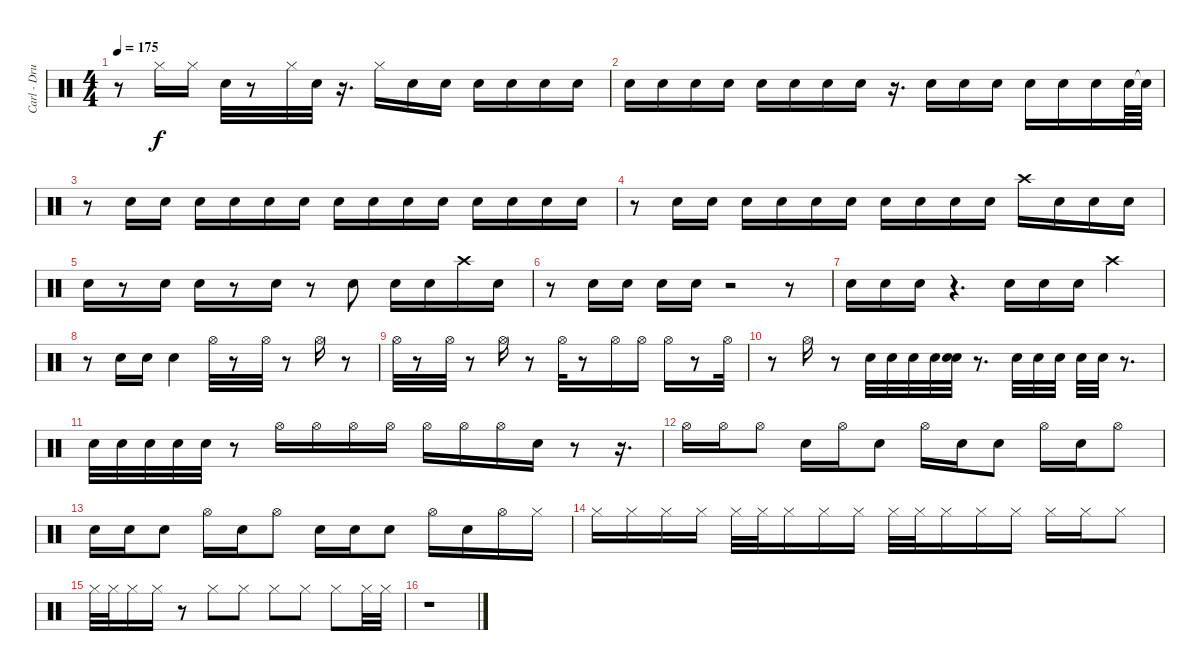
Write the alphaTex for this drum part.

\track ("Carl - Drums II" "Carl - Dru") {instrument percussion}
\staff {score}
\articulation defaults
\ts (4 4)
\tempo 175
\clef neutral
\ks c
r.8{dy f} "Hi-Hat (closed)".16 "Hi-Hat (closed)".16 "Snare (hit) 2".32 r.8 "Hi-Hat (closed)".32 "Snare (hit) 2".32 r.16{d} "Hi-Hat (closed)".16 "Snare (hit) 2".16 "Snare (hit) 2".16 "Snare (hit) 2".16 "Snare (hit) 2".16 "Snare (hit) 2".16 "Snare (hit) 2".16 |
"Snare (hit) 2".16 "Snare (hit) 2".16 "Snare (hit) 2".16 "Snare (hit) 2".16 "Snare (hit) 2".16 "Snare (hit) 2".16 "Snare (hit) 2".16 "Snare (hit) 2".16 r.16{d} "Snare (hit) 2".16 "Snare (hit) 2".16 "Snare (hit) 2".16 "Snare (hit) 2".16 "Snare (hit) 2".16 "Snare (hit) 2".16 "Snare (hit) 2".64 "Snare (hit)"{t}.64 |
r.8 "Snare (hit) 2".16 "Snare (hit) 2".16 "Snare (hit) 2".16 "Snare (hit) 2".16 "Snare (hit) 2".16 "Snare (hit) 2".16 "Snare (hit) 2".16 "Snare (hit) 2".16 "Snare (hit) 2".16 "Snare (hit) 2".16 "Snare (hit) 2".16 "Snare (hit) 2".16 "Snare (hit) 2".16 "Snare (hit) 2".16 |
r.8 "Snare (hit) 2".16 "Snare (hit) 2".16 "Snare (hit) 2".16 "Snare (hit) 2".16 "Snare (hit) 2".16 "Snare (hit) 2".16 "Snare (hit) 2".16 "Snare (hit) 2".16 "Snare (hit) 2".16 "Snare (hit) 2".16 "Crash high (hit)".16 "Snare (hit) 2".16 "Snare (hit) 2".16 "Snare (hit) 2".16 |
"Snare (hit) 2".16 r.8 "Snare (hit) 2".16 "Snare (hit) 2".16 r.8 "Snare (hit) 2".16 r.8 "Snare (hit) 2".8 "Snare (hit) 2".16 "Snare (hit) 2".16 "Crash high (hit)".16 "Snare (hit) 2".16 |
r.8 "Snare (hit) 2".16 "Snare (hit) 2".16 "Snare (hit) 2".16 "Snare (hit) 2".16 r.2 r.8 |
"Snare (hit) 2".16 "Snare (hit) 2".16 "Snare (hit) 2".16 r.4{d} "Snare (hit) 2".16 "Snare (hit) 2".16 "Snare (hit) 2".16 "Crash high (hit)".4 |
r.8 "Snare (hit) 2".16 "Snare (hit) 2".16 "Snare (hit) 2".4 "Hi-Hat (open)".32 r.8 "Hi-Hat (open)".32 r.8 "Hi-Hat (open)".16 r.8 |
"Hi-Hat (open)".32 r.8 "Hi-Hat (open)".32 r.8 "Hi-Hat (open)".16 r.8 "Hi-Hat (open)".32 r.8 "Hi-Hat (open)".16 "Hi-Hat (open)".16 "Hi-Hat (open)".16 r.8 "Hi-Hat (open)".32 |
r.8 "Hi-Hat (open)".16 r.8 "Snare (hit) 2".32 "Snare (hit) 2".32 "Snare (hit) 2".32 "Snare (hit) 2".32 ("Snare (hit) 2" "Snare (hit) 2").32 r.8{d} "Snare (hit) 2".32 "Snare (hit) 2".32 "Snare (hit) 2".32 "Snare (hit) 2".32 "Snare (hit) 2".32 r.8{d} |
"Snare (hit) 2".32 "Snare (hit) 2".32 "Snare (hit) 2".32 "Snare (hit) 2".32 "Snare (hit) 2".32 r.8 "Hi-Hat (open)".16 "Hi-Hat (open)".16 "Hi-Hat (open)".16 "Hi-Hat (open)".16 "Hi-Hat (open)".16 "Hi-Hat (open)".16 "Hi-Hat (open)".16 "Snare (hit) 2".16 r.8 r.16{d} |
"Hi-Hat (open)".16 "Hi-Hat (open)".16 "Hi-Hat (open)".8 "Snare (hit) 2".16 "Hi-Hat (open)".16 "Snare (hit) 2".8 "Hi-Hat (open)".16 "Snare (hit) 2".16 "Snare (hit) 2".8 "Hi-Hat (open)".16 "Snare (hit) 2".16 "Hi-Hat (open)".8 |
"Snare (hit) 2".16 "Snare (hit) 2".16 "Snare (hit) 2".8 "Hi-Hat (open)".16 "Snare (hit) 2".16 "Hi-Hat (open)".8 "Snare (hit) 2".16 "Snare (hit) 2".16 "Snare (hit) 2".8 "Hi-Hat (open)".16 "Snare (hit) 2".16 "Hi-Hat (open)".16 "Hi-Hat (closed)".16 |
"Hi-Hat (closed)".16 "Hi-Hat (closed)".16 "Hi-Hat (closed)".16 "Hi-Hat (closed)".16 "Hi-Hat (closed)".32 "Hi-Hat (closed)".32 "Hi-Hat (closed)".16 "Hi-Hat (closed)".16 "Hi-Hat (closed)".16 "Hi-Hat (closed)".32 "Hi-Hat (closed)".32 "Hi-Hat (closed)".16 "Hi-Hat (closed)".16 "Hi-Hat (closed)".16 "Hi-Hat (closed)".16 "Hi-Hat (closed)".16 "Hi-Hat (closed)".8 |
"Hi-Hat (closed)".32 "Hi-Hat (closed)".32 "Hi-Hat (closed)".16 "Hi-Hat (closed)".16 r.8 "Hi-Hat (closed)".8 "Hi-Hat (closed)".8 "Hi-Hat (closed)".8 "Hi-Hat (closed)".8 "Hi-Hat (closed)".8 "Hi-Hat (closed)".32 "Hi-Hat (closed)".32 |
r.1
